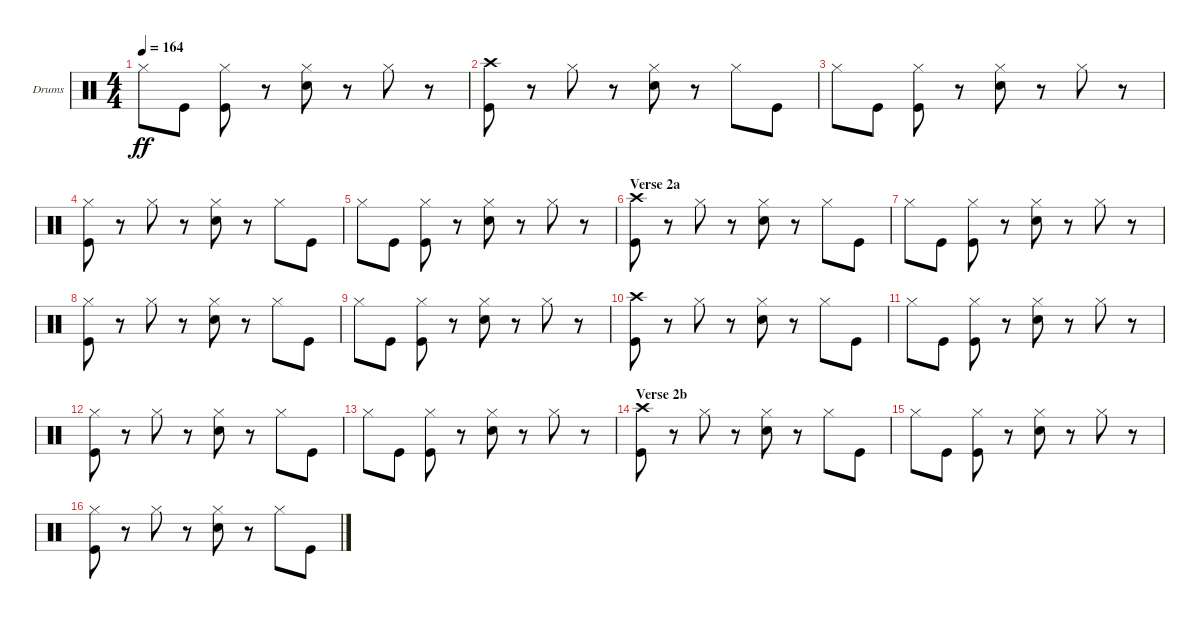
\defaultSystemsLayout 4
\bracketExtendMode groupsimilarinstruments
\firstSystemTrackNameOrientation horizontal
\otherSystemsTrackNameOrientation horizontal
\track ("Drumkit" "Drums") {instrument percussion}
\staff {score}
\articulation defaults
\ts (4 4)
\tempo 164
\clef neutral
\ks c "Hi-Hat (closed)".8{dy ff} "Kick (hit)".8
("Hi-Hat (closed)" "Kick (hit)").8 r.8 ("Hi-Hat (closed)" "Snare (hit) 2").8 r.8 "Hi-Hat (closed)".8 r.8 |
("Kick (hit)" "Crash high (hit)").8 r.8 "Hi-Hat (closed)".8 r.8 ("Hi-Hat (closed)" "Snare (hit) 2").8 r.8 "Hi-Hat (closed)".8 "Kick (hit)".8 |
"Hi-Hat (closed)".8 "Kick (hit)".8 ("Hi-Hat (closed)" "Kick (hit)").8 r.8 ("Hi-Hat (closed)" "Snare (hit) 2").8 r.8 "Hi-Hat (closed)".8 r.8 |
("Kick (hit)" "Hi-Hat (closed)").8 r.8 "Hi-Hat (closed)".8 r.8 ("Hi-Hat (closed)" "Snare (hit) 2").8 r.8 "Hi-Hat (closed)".8 "Kick (hit)".8 |
"Hi-Hat (closed)".8 "Kick (hit)".8 ("Hi-Hat (closed)" "Kick (hit)").8 r.8 ("Hi-Hat (closed)" "Snare (hit) 2").8 r.8 "Hi-Hat (closed)".8 r.8 |
\section ("" "Verse 2a")
("Kick (hit)" "Crash high (hit)").8 r.8 "Hi-Hat (closed)".8 r.8 ("Hi-Hat (closed)" "Snare (hit) 2").8 r.8 "Hi-Hat (closed)".8 "Kick (hit)".8 |
"Hi-Hat (closed)".8 "Kick (hit)".8 ("Hi-Hat (closed)" "Kick (hit)").8 r.8 ("Hi-Hat (closed)" "Snare (hit) 2").8 r.8 "Hi-Hat (closed)".8 r.8 |
("Kick (hit)" "Hi-Hat (closed)").8 r.8 "Hi-Hat (closed)".8 r.8 ("Hi-Hat (closed)" "Snare (hit) 2").8 r.8 "Hi-Hat (closed)".8 "Kick (hit)".8 |
"Hi-Hat (closed)".8 "Kick (hit)".8 ("Hi-Hat (closed)" "Kick (hit)").8 r.8 ("Hi-Hat (closed)" "Snare (hit) 2").8 r.8 "Hi-Hat (closed)".8 r.8 |
("Kick (hit)" "Crash high (hit)").8 r.8 "Hi-Hat (closed)".8 r.8 ("Hi-Hat (closed)" "Snare (hit) 2").8 r.8 "Hi-Hat (closed)".8 "Kick (hit)".8 |
"Hi-Hat (closed)".8 "Kick (hit)".8 ("Hi-Hat (closed)" "Kick (hit)").8 r.8 ("Hi-Hat (closed)" "Snare (hit) 2").8 r.8 "Hi-Hat (closed)".8 r.8 |
("Kick (hit)" "Hi-Hat (closed)").8 r.8 "Hi-Hat (closed)".8 r.8 ("Hi-Hat (closed)" "Snare (hit) 2").8 r.8 "Hi-Hat (closed)".8 "Kick (hit)".8 |
"Hi-Hat (closed)".8 "Kick (hit)".8 ("Hi-Hat (closed)" "Kick (hit)").8 r.8 ("Hi-Hat (closed)" "Snare (hit) 2").8 r.8 "Hi-Hat (closed)".8 r.8 |
\section ("" "Verse 2b")
("Kick (hit)" "Crash high (hit)").8 r.8 "Hi-Hat (closed)".8 r.8 ("Hi-Hat (closed)" "Snare (hit) 2").8 r.8 "Hi-Hat (closed)".8 "Kick (hit)".8 |
"Hi-Hat (closed)".8 "Kick (hit)".8 ("Hi-Hat (closed)" "Kick (hit)").8 r.8 ("Hi-Hat (closed)" "Snare (hit) 2").8 r.8 "Hi-Hat (closed)".8 r.8 |
("Kick (hit)" "Hi-Hat (closed)").8 r.8 "Hi-Hat (closed)".8 r.8 ("Hi-Hat (closed)" "Snare (hit) 2").8 r.8 "Hi-Hat (closed)".8 "Kick (hit)".8
